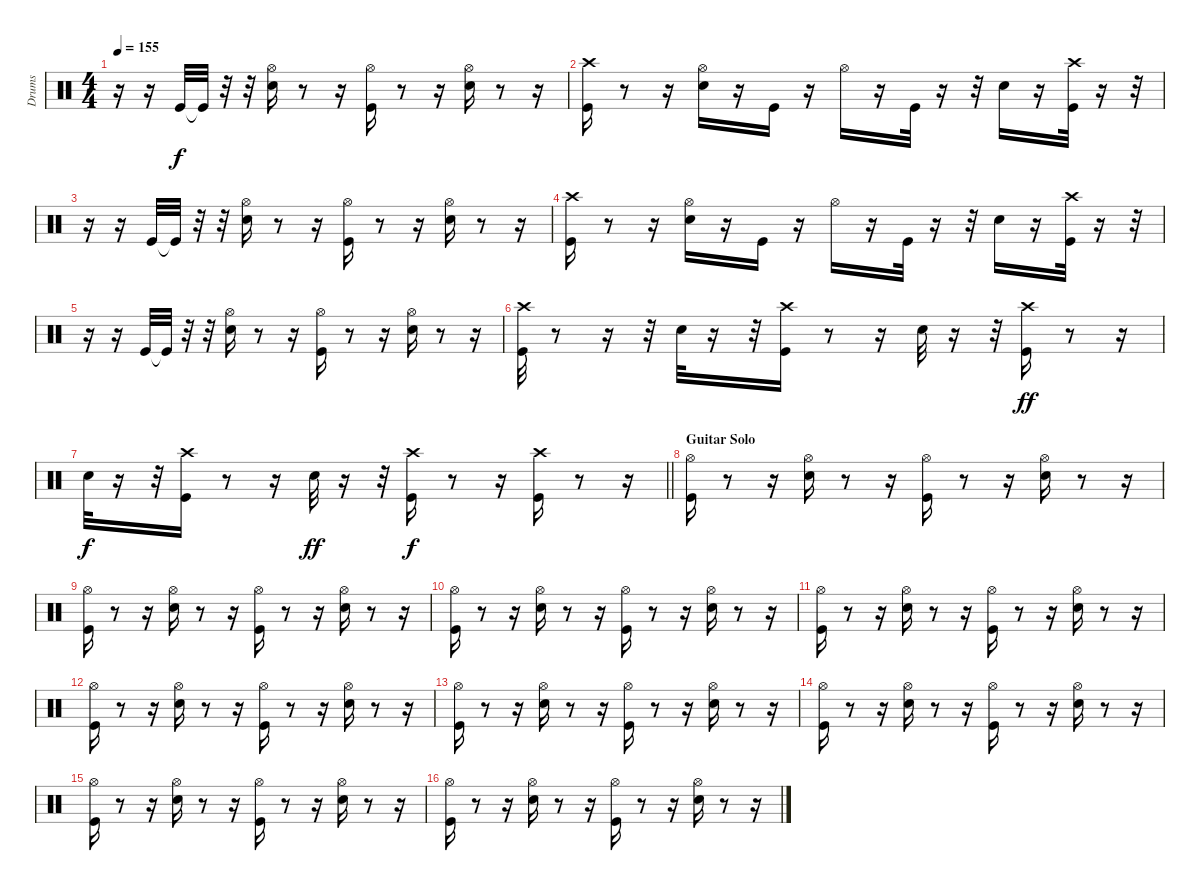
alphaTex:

\track ("Drums" "Drums") {instrument percussion}
\staff {score}
\articulation defaults
\ts (4 4)
\tempo 155
\clef neutral
\ks c
r.16{dy f} r.16 "Kick (hit)".32 "Kick (hit)"{t}.32 r.32 r.32 ("Hi-Hat (open)" "Snare (hit) 2").16 r.8 r.16 ("Hi-Hat (open)" "Kick (hit)").16 r.8 r.16 ("Hi-Hat (open)" "Snare (hit) 2").16 r.8 r.16 |
("Kick (hit)" "Crash high (hit)").16 r.8 r.16 ("Hi-Hat (open)" "Snare (hit) 2").16 r.16 "Kick (hit)".16 r.16 "Hi-Hat (open)".16 r.16 "Kick (hit)".32 r.16 r.32 "Snare (hit) 2".16 r.16 ("Kick (hit)" "Crash high (hit)").32 r.16 r.32 |
r.16 r.16 "Kick (hit)".32 "Kick (hit)"{t}.32 r.32 r.32 ("Hi-Hat (open)" "Snare (hit) 2").16 r.8 r.16 ("Hi-Hat (open)" "Kick (hit)").16 r.8 r.16 ("Hi-Hat (open)" "Snare (hit) 2").16 r.8 r.16 |
("Kick (hit)" "Crash high (hit)").16 r.8 r.16 ("Hi-Hat (open)" "Snare (hit) 2").16 r.16 "Kick (hit)".16 r.16 "Hi-Hat (open)".16 r.16 "Kick (hit)".32 r.16 r.32 "Snare (hit) 2".16 r.16 ("Kick (hit)" "Crash high (hit)").32 r.16 r.32 |
r.16 r.16 "Kick (hit)".32 "Kick (hit)"{t}.32 r.32 r.32 ("Hi-Hat (open)" "Snare (hit) 2").16 r.8 r.16 ("Hi-Hat (open)" "Kick (hit)").16 r.8 r.16 ("Hi-Hat (open)" "Snare (hit) 2").16 r.8 r.16 |
("Kick (hit)" "Crash high (hit)").32 r.8 r.16 r.32 "Snare (hit) 2".32 r.16 r.32 ("Kick (hit)" "Crash high (hit)").16 r.8 r.16 "Snare (hit) 2".32 r.16 r.32 ("Kick (hit)" "Crash high (hit)").16{dy ff} r.8 r.16 |
\barLineRight lightlight "Snare (hit) 2".32{dy f}
r.16 r.32 ("Kick (hit)" "Crash high (hit)").16 r.8 r.16 "Snare (hit) 2".32{dy ff} r.16 r.32 ("Kick (hit)" "Crash high (hit)").16{dy f} r.8 r.16 ("Kick (hit)" "Crash high (hit)").16 r.8 r.16 |
\section ("" "Guitar Solo")
("Hi-Hat (open)" "Kick (hit)").16 r.8 r.16 ("Hi-Hat (open)" "Snare (hit) 2").16 r.8 r.16 ("Kick (hit)" "Hi-Hat (open)").16 r.8 r.16 ("Snare (hit) 2" "Hi-Hat (open)").16 r.8 r.16 |
("Hi-Hat (open)" "Kick (hit)").16 r.8 r.16 ("Hi-Hat (open)" "Snare (hit) 2").16 r.8 r.16 ("Kick (hit)" "Hi-Hat (open)").16 r.8 r.16 ("Snare (hit) 2" "Hi-Hat (open)").16 r.8 r.16 |
("Hi-Hat (open)" "Kick (hit)").16 r.8 r.16 ("Hi-Hat (open)" "Snare (hit) 2").16 r.8 r.16 ("Kick (hit)" "Hi-Hat (open)").16 r.8 r.16 ("Snare (hit) 2" "Hi-Hat (open)").16 r.8 r.16 |
("Hi-Hat (open)" "Kick (hit)").16 r.8 r.16 ("Hi-Hat (open)" "Snare (hit) 2").16 r.8 r.16 ("Kick (hit)" "Hi-Hat (open)").16 r.8 r.16 ("Snare (hit) 2" "Hi-Hat (open)").16 r.8 r.16 |
("Hi-Hat (open)" "Kick (hit)").16 r.8 r.16 ("Hi-Hat (open)" "Snare (hit) 2").16 r.8 r.16 ("Kick (hit)" "Hi-Hat (open)").16 r.8 r.16 ("Snare (hit) 2" "Hi-Hat (open)").16 r.8 r.16 |
("Hi-Hat (open)" "Kick (hit)").16 r.8 r.16 ("Hi-Hat (open)" "Snare (hit) 2").16 r.8 r.16 ("Kick (hit)" "Hi-Hat (open)").16 r.8 r.16 ("Snare (hit) 2" "Hi-Hat (open)").16 r.8 r.16 |
("Hi-Hat (open)" "Kick (hit)").16 r.8 r.16 ("Hi-Hat (open)" "Snare (hit) 2").16 r.8 r.16 ("Kick (hit)" "Hi-Hat (open)").16 r.8 r.16 ("Snare (hit) 2" "Hi-Hat (open)").16 r.8 r.16 |
("Hi-Hat (open)" "Kick (hit)").16 r.8 r.16 ("Hi-Hat (open)" "Snare (hit) 2").16 r.8 r.16 ("Kick (hit)" "Hi-Hat (open)").16 r.8 r.16 ("Snare (hit) 2" "Hi-Hat (open)").16 r.8 r.16 |
("Hi-Hat (open)" "Kick (hit)").16 r.8 r.16 ("Hi-Hat (open)" "Snare (hit) 2").16 r.8 r.16 ("Kick (hit)" "Hi-Hat (open)").16 r.8 r.16 ("Snare (hit) 2" "Hi-Hat (open)").16 r.8 r.16
